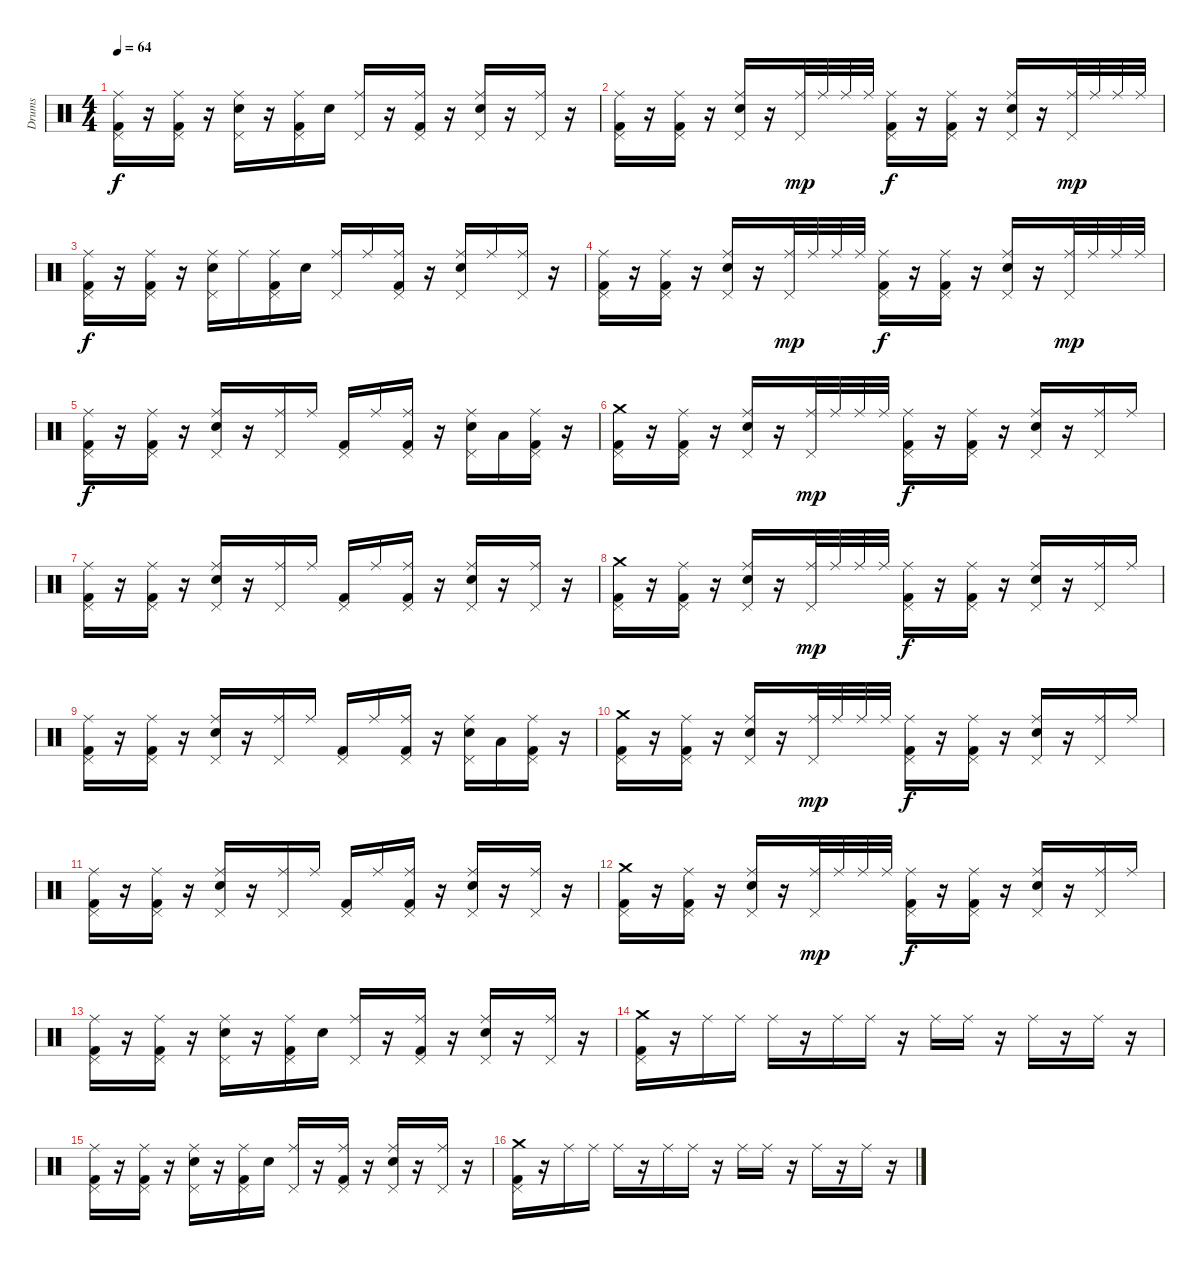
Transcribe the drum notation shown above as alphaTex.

\track ("Drums" "Drums") {instrument percussion}
\staff {score}
\articulation defaults
\ts (4 4)
\tempo 64
\clef neutral
\ks c
("Ride (middle)" "Pedal Hi-Hat (hit)" "Kick (hit) 2").16{dy f} r.16 ("Ride (middle)" "Pedal Hi-Hat (hit)" "Kick (hit) 2").16 r.16 ("Ride (middle)" "Pedal Hi-Hat (hit)" "Snare (hit) 2").16 r.16 ("Ride (middle)" "Pedal Hi-Hat (hit)" "Kick (hit) 2").16 "Snare (hit) 2".16 ("Ride (middle)" "Pedal Hi-Hat (hit)").16 r.16 ("Ride (middle)" "Pedal Hi-Hat (hit)" "Kick (hit) 2").16 r.16 ("Ride (middle)" "Pedal Hi-Hat (hit)" "Snare (hit) 2").16 r.16 ("Ride (middle)" "Pedal Hi-Hat (hit)").16 r.16 |
("Ride (middle)" "Pedal Hi-Hat (hit)" "Kick (hit) 2").16 r.16 ("Ride (middle)" "Pedal Hi-Hat (hit)" "Kick (hit) 2").16 r.16 ("Ride (middle)" "Pedal Hi-Hat (hit)" "Snare (hit) 2").16 r.16 ("Ride (middle)" "Pedal Hi-Hat (hit)").32{dy mp} "Ride (middle)".32 "Ride (middle)".32 "Ride (middle)".32 ("Ride (middle)" "Pedal Hi-Hat (hit)" "Kick (hit) 2").16{dy f} r.16 ("Ride (middle)" "Pedal Hi-Hat (hit)" "Kick (hit) 2").16 r.16 ("Ride (middle)" "Pedal Hi-Hat (hit)" "Snare (hit) 2").16 r.16 ("Ride (middle)" "Pedal Hi-Hat (hit)").32{dy mp} "Ride (middle)".32 "Ride (middle)".32 "Ride (middle)".32 |
("Ride (middle)" "Pedal Hi-Hat (hit)" "Kick (hit) 2").16{dy f} r.16 ("Ride (middle)" "Pedal Hi-Hat (hit)" "Kick (hit) 2").16 r.16 ("Ride (middle)" "Pedal Hi-Hat (hit)" "Snare (hit) 2").16 "Ride (middle)".16 ("Ride (middle)" "Pedal Hi-Hat (hit)" "Kick (hit) 2").16 "Snare (hit) 2".16 ("Ride (middle)" "Pedal Hi-Hat (hit)").16 "Ride (middle)".16 ("Ride (middle)" "Pedal Hi-Hat (hit)" "Kick (hit) 2").16 r.16 ("Ride (middle)" "Pedal Hi-Hat (hit)" "Snare (hit) 2").16 "Ride (middle)".16 ("Ride (middle)" "Pedal Hi-Hat (hit)").16 r.16 |
("Ride (middle)" "Pedal Hi-Hat (hit)" "Kick (hit) 2").16 r.16 ("Ride (middle)" "Pedal Hi-Hat (hit)" "Kick (hit) 2").16 r.16 ("Ride (middle)" "Pedal Hi-Hat (hit)" "Snare (hit) 2").16 r.16 ("Ride (middle)" "Pedal Hi-Hat (hit)").32{dy mp} "Ride (middle)".32 "Ride (middle)".32 "Ride (middle)".32 ("Ride (middle)" "Pedal Hi-Hat (hit)" "Kick (hit) 2").16{dy f} r.16 ("Ride (middle)" "Pedal Hi-Hat (hit)" "Kick (hit) 2").16 r.16 ("Ride (middle)" "Pedal Hi-Hat (hit)" "Snare (hit) 2").16 r.16 ("Ride (middle)" "Pedal Hi-Hat (hit)").32{dy mp} "Ride (middle)".32 "Ride (middle)".32 "Ride (middle)".32 |
("Ride (middle)" "Pedal Hi-Hat (hit)" "Kick (hit) 2").16{dy f} r.16 ("Ride (middle)" "Pedal Hi-Hat (hit)" "Kick (hit) 2").16 r.16 ("Ride (middle)" "Pedal Hi-Hat (hit)" "Snare (hit) 2").16 r.16 ("Ride (middle)" "Pedal Hi-Hat (hit)").16 "Ride (middle)".16 ("Pedal Hi-Hat (hit)" "Kick (hit) 2").16 "Ride (middle)".16 ("Ride (middle)" "Pedal Hi-Hat (hit)" "Kick (hit) 2").16 r.16 ("Ride (middle)" "Pedal Hi-Hat (hit)" "Snare (hit) 2").16 "Low Tom (hit)".16 ("Ride (middle)" "Pedal Hi-Hat (hit)" "Kick (hit) 2").16 r.16 |
("Crash medium (hit)" "Pedal Hi-Hat (hit)" "Kick (hit) 2").16{volume 10} r.16 ("Ride (middle)" "Pedal Hi-Hat (hit)" "Kick (hit) 2").16 r.16 ("Ride (middle)" "Pedal Hi-Hat (hit)" "Snare (hit) 2").16 r.16 ("Ride (middle)" "Pedal Hi-Hat (hit)").32{dy mp} "Ride (middle)".32 "Ride (middle)".32 "Ride (middle)".32 ("Ride (middle)" "Pedal Hi-Hat (hit)" "Kick (hit) 2").16{dy f} r.16 ("Ride (middle)" "Pedal Hi-Hat (hit)" "Kick (hit) 2").16 r.16 ("Ride (middle)" "Pedal Hi-Hat (hit)" "Snare (hit) 2").16 r.16 ("Ride (middle)" "Pedal Hi-Hat (hit)").16 "Ride (middle)".16 |
("Ride (middle)" "Pedal Hi-Hat (hit)" "Kick (hit) 2").16 r.16 ("Ride (middle)" "Pedal Hi-Hat (hit)" "Kick (hit) 2").16 r.16 ("Ride (middle)" "Pedal Hi-Hat (hit)" "Snare (hit) 2").16 r.16 ("Ride (middle)" "Pedal Hi-Hat (hit)").16 "Ride (middle)".16 ("Pedal Hi-Hat (hit)" "Kick (hit) 2").16 "Ride (middle)".16 ("Ride (middle)" "Pedal Hi-Hat (hit)" "Kick (hit) 2").16 r.16 ("Ride (middle)" "Pedal Hi-Hat (hit)" "Snare (hit) 2").16 r.16 ("Ride (middle)" "Pedal Hi-Hat (hit)").16 r.16 |
("Crash medium (hit)" "Pedal Hi-Hat (hit)" "Kick (hit) 2").16 r.16 ("Ride (middle)" "Pedal Hi-Hat (hit)" "Kick (hit) 2").16 r.16 ("Ride (middle)" "Pedal Hi-Hat (hit)" "Snare (hit) 2").16 r.16 ("Ride (middle)" "Pedal Hi-Hat (hit)").32{dy mp} "Ride (middle)".32 "Ride (middle)".32 "Ride (middle)".32 ("Ride (middle)" "Pedal Hi-Hat (hit)" "Kick (hit) 2").16{dy f} r.16 ("Ride (middle)" "Pedal Hi-Hat (hit)" "Kick (hit) 2").16 r.16 ("Ride (middle)" "Pedal Hi-Hat (hit)" "Snare (hit) 2").16 r.16 ("Ride (middle)" "Pedal Hi-Hat (hit)").16 "Ride (middle)".16 |
("Ride (middle)" "Pedal Hi-Hat (hit)" "Kick (hit) 2").16 r.16 ("Ride (middle)" "Pedal Hi-Hat (hit)" "Kick (hit) 2").16 r.16 ("Ride (middle)" "Pedal Hi-Hat (hit)" "Snare (hit) 2").16 r.16 ("Ride (middle)" "Pedal Hi-Hat (hit)").16 "Ride (middle)".16 ("Pedal Hi-Hat (hit)" "Kick (hit) 2").16 "Ride (middle)".16 ("Ride (middle)" "Pedal Hi-Hat (hit)" "Kick (hit) 2").16 r.16 ("Ride (middle)" "Pedal Hi-Hat (hit)" "Snare (hit) 2").16 "Low Tom (hit)".16 ("Ride (middle)" "Pedal Hi-Hat (hit)" "Kick (hit) 2").16 r.16 |
("Crash medium (hit)" "Pedal Hi-Hat (hit)" "Kick (hit) 2").16 r.16 ("Ride (middle)" "Pedal Hi-Hat (hit)" "Kick (hit) 2").16 r.16 ("Ride (middle)" "Pedal Hi-Hat (hit)" "Snare (hit) 2").16 r.16 ("Ride (middle)" "Pedal Hi-Hat (hit)").32{dy mp} "Ride (middle)".32 "Ride (middle)".32 "Ride (middle)".32 ("Ride (middle)" "Pedal Hi-Hat (hit)" "Kick (hit) 2").16{dy f} r.16 ("Ride (middle)" "Pedal Hi-Hat (hit)" "Kick (hit) 2").16 r.16 ("Ride (middle)" "Pedal Hi-Hat (hit)" "Snare (hit) 2").16 r.16 ("Ride (middle)" "Pedal Hi-Hat (hit)").16 "Ride (middle)".16 |
("Ride (middle)" "Pedal Hi-Hat (hit)" "Kick (hit) 2").16 r.16 ("Ride (middle)" "Pedal Hi-Hat (hit)" "Kick (hit) 2").16 r.16 ("Ride (middle)" "Pedal Hi-Hat (hit)" "Snare (hit) 2").16 r.16 ("Ride (middle)" "Pedal Hi-Hat (hit)").16 "Ride (middle)".16 ("Pedal Hi-Hat (hit)" "Kick (hit) 2").16 "Ride (middle)".16 ("Ride (middle)" "Pedal Hi-Hat (hit)" "Kick (hit) 2").16 r.16 ("Ride (middle)" "Pedal Hi-Hat (hit)" "Snare (hit) 2").16 r.16 ("Ride (middle)" "Pedal Hi-Hat (hit)").16 r.16 |
("Crash medium (hit)" "Pedal Hi-Hat (hit)" "Kick (hit) 2").16 r.16 ("Ride (middle)" "Pedal Hi-Hat (hit)" "Kick (hit) 2").16 r.16 ("Ride (middle)" "Pedal Hi-Hat (hit)" "Snare (hit) 2").16 r.16 ("Ride (middle)" "Pedal Hi-Hat (hit)").32{dy mp} "Ride (middle)".32 "Ride (middle)".32 "Ride (middle)".32 ("Ride (middle)" "Pedal Hi-Hat (hit)" "Kick (hit) 2").16{dy f} r.16 ("Ride (middle)" "Pedal Hi-Hat (hit)" "Kick (hit) 2").16 r.16 ("Ride (middle)" "Pedal Hi-Hat (hit)" "Snare (hit) 2").16 r.16 ("Ride (middle)" "Pedal Hi-Hat (hit)").16 "Ride (middle)".16 |
("Ride (middle)" "Pedal Hi-Hat (hit)" "Kick (hit) 2").16 r.16 ("Ride (middle)" "Pedal Hi-Hat (hit)" "Kick (hit) 2").16 r.16 ("Ride (middle)" "Pedal Hi-Hat (hit)" "Snare (hit) 2").16 r.16 ("Ride (middle)" "Pedal Hi-Hat (hit)" "Kick (hit) 2").16 "Snare (hit) 2".16 ("Ride (middle)" "Pedal Hi-Hat (hit)").16 r.16 ("Ride (middle)" "Pedal Hi-Hat (hit)" "Kick (hit) 2").16 r.16 ("Ride (middle)" "Pedal Hi-Hat (hit)" "Snare (hit) 2").16 r.16 ("Ride (middle)" "Pedal Hi-Hat (hit)").16 r.16 |
("Crash medium (hit)" "Pedal Hi-Hat (hit)" "Kick (hit) 2").16 r.16 "Ride (middle)".16 "Ride (middle)".16 "Ride (middle)".16 r.16 "Ride (middle)".16 "Ride (middle)".16 r.16 "Ride (middle)".16 "Ride (middle)".16 r.16 "Ride (middle)".16 r.16 "Ride (middle)".16 r.16 |
("Ride (middle)" "Pedal Hi-Hat (hit)" "Kick (hit) 2").16 r.16 ("Ride (middle)" "Pedal Hi-Hat (hit)" "Kick (hit) 2").16 r.16 ("Ride (middle)" "Pedal Hi-Hat (hit)" "Snare (hit) 2").16 r.16 ("Ride (middle)" "Pedal Hi-Hat (hit)" "Kick (hit) 2").16 "Snare (hit) 2".16 ("Ride (middle)" "Pedal Hi-Hat (hit)").16 r.16 ("Ride (middle)" "Pedal Hi-Hat (hit)" "Kick (hit) 2").16 r.16 ("Ride (middle)" "Pedal Hi-Hat (hit)" "Snare (hit) 2").16 r.16 ("Ride (middle)" "Pedal Hi-Hat (hit)").16 r.16 |
("Crash medium (hit)" "Pedal Hi-Hat (hit)" "Kick (hit) 2").16 r.16 "Ride (middle)".16 "Ride (middle)".16 "Ride (middle)".16 r.16 "Ride (middle)".16 "Ride (middle)".16 r.16 "Ride (middle)".16 "Ride (middle)".16 r.16 "Ride (middle)".16 r.16 "Ride (middle)".16 r.16
